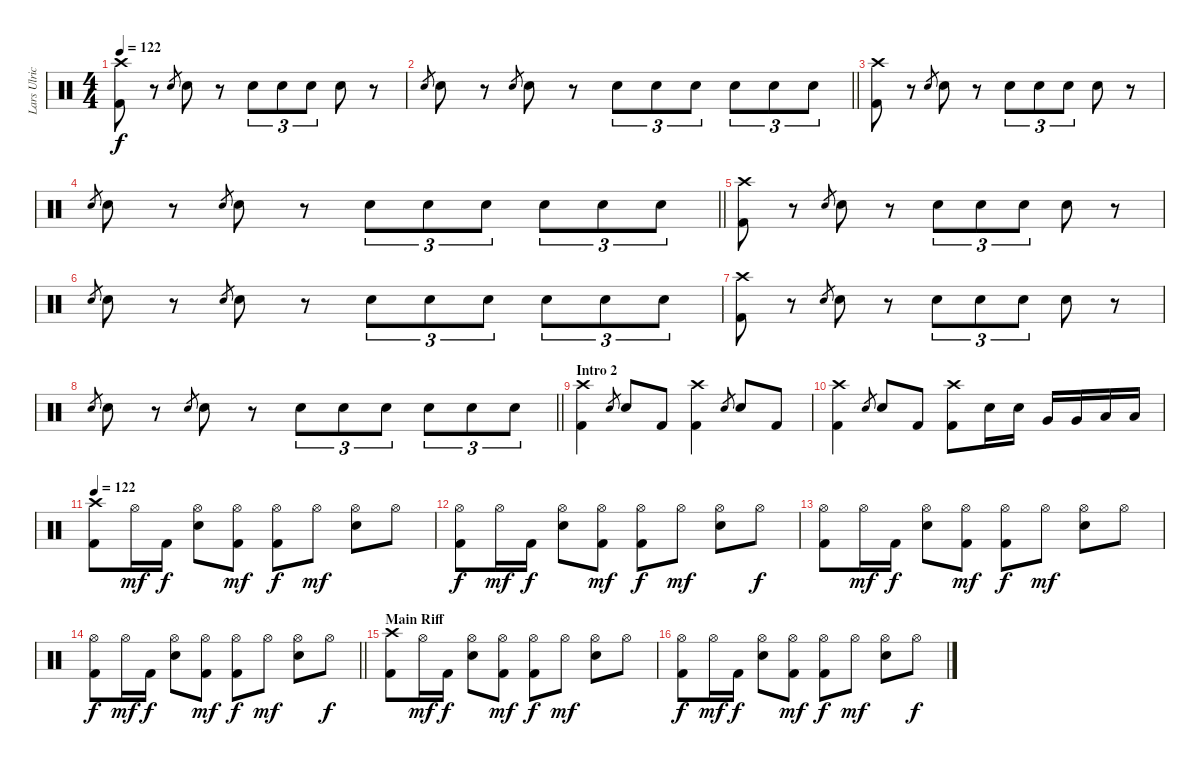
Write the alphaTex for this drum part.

\track ("Lars Ulrich" "Lars Ulric") {instrument percussion}
\staff {score}
\articulation defaults
\ts (4 4)
\tempo 122
\clef neutral
\ks c
("Crash high (hit)" "Kick (hit) 2").8{dy f} r.8 "Snare (hit) 2".8{gr} "Snare (hit) 2".8 r.8 "Snare (hit) 2".8{tu (3 2)} "Snare (hit) 2".8{tu (3 2)} "Snare (hit) 2".8{tu (3 2)} "Snare (hit) 2".8 r.8 |
\barLineRight lightlight "Snare (hit) 2".8{gr} "Snare (hit) 2".8
r.8 "Snare (hit) 2".8{gr} "Snare (hit) 2".8 r.8 "Snare (hit) 2".8{tu (3 2)} "Snare (hit) 2".8{tu (3 2)} "Snare (hit) 2".8{tu (3 2)} "Snare (hit) 2".8{tu (3 2)} "Snare (hit) 2".8{tu (3 2)} "Snare (hit) 2".8{tu (3 2)} |
("Crash high (hit)" "Kick (hit) 2").8 r.8 "Snare (hit) 2".8{gr} "Snare (hit) 2".8 r.8 "Snare (hit) 2".8{tu (3 2)} "Snare (hit) 2".8{tu (3 2)} "Snare (hit) 2".8{tu (3 2)} "Snare (hit) 2".8 r.8 |
\barLineRight lightlight "Snare (hit) 2".8{gr} "Snare (hit) 2".8
r.8 "Snare (hit) 2".8{gr} "Snare (hit) 2".8 r.8 "Snare (hit) 2".8{tu (3 2)} "Snare (hit) 2".8{tu (3 2)} "Snare (hit) 2".8{tu (3 2)} "Snare (hit) 2".8{tu (3 2)} "Snare (hit) 2".8{tu (3 2)} "Snare (hit) 2".8{tu (3 2)} |
("Crash high (hit)" "Kick (hit) 2").8 r.8 "Snare (hit) 2".8{gr} "Snare (hit) 2".8 r.8 "Snare (hit) 2".8{tu (3 2)} "Snare (hit) 2".8{tu (3 2)} "Snare (hit) 2".8{tu (3 2)} "Snare (hit) 2".8 r.8 |
"Snare (hit) 2".8{gr} "Snare (hit) 2".8 r.8 "Snare (hit) 2".8{gr} "Snare (hit) 2".8 r.8 "Snare (hit) 2".8{tu (3 2)} "Snare (hit) 2".8{tu (3 2)} "Snare (hit) 2".8{tu (3 2)} "Snare (hit) 2".8{tu (3 2)} "Snare (hit) 2".8{tu (3 2)} "Snare (hit) 2".8{tu (3 2)} |
("Crash high (hit)" "Kick (hit) 2").8 r.8 "Snare (hit) 2".8{gr} "Snare (hit) 2".8 r.8 "Snare (hit) 2".8{tu (3 2)} "Snare (hit) 2".8{tu (3 2)} "Snare (hit) 2".8{tu (3 2)} "Snare (hit) 2".8 r.8 |
\barLineRight lightlight "Snare (hit) 2".8{gr} "Snare (hit) 2".8
r.8 "Snare (hit) 2".8{gr} "Snare (hit) 2".8 r.8 "Snare (hit) 2".8{tu (3 2)} "Snare (hit) 2".8{tu (3 2)} "Snare (hit) 2".8{tu (3 2)} "Snare (hit) 2".8{tu (3 2)} "Snare (hit) 2".8{tu (3 2)} "Snare (hit) 2".8{tu (3 2)} |
\section ("" "Intro 2")
("Crash high (hit)" "Kick (hit) 2").4 "Snare (hit) 2".8{gr} "Snare (hit) 2".8 "Kick (hit) 2".8 ("Crash high (hit)" "Kick (hit) 2").4 "Snare (hit) 2".8{gr} "Snare (hit) 2".8 "Kick (hit) 2".8 |
("Crash high (hit)" "Kick (hit) 2").4 "Snare (hit) 2".8{gr} "Snare (hit) 2".8 "Kick (hit) 2".8 ("Crash high (hit)" "Kick (hit) 2").8 "Snare (hit) 2".16 "Snare (hit) 2".16 "Very Low Tom (hit)".16 "Very Low Tom (hit)".16 "Low Floor Tom (hit)".16 "Low Floor Tom (hit)".16 |
\tempo 122
("Crash high (hit)" "Kick (hit) 2").8 "Hi-Hat (open)".16{dy mf} "Kick (hit) 2".16{dy f} ("Hi-Hat (open)" "Snare (hit) 2").8 ("Hi-Hat (open)" "Kick (hit) 2").8{dy mf} ("Hi-Hat (open)" "Kick (hit) 2").8{dy f} "Hi-Hat (open)".8{dy mf} ("Hi-Hat (open)" "Snare (hit) 2").8 "Hi-Hat (open)".8 |
("Hi-Hat (open)" "Kick (hit) 2").8{dy f} "Hi-Hat (open)".16{dy mf} "Kick (hit) 2".16{dy f} ("Hi-Hat (open)" "Snare (hit) 2").8 ("Hi-Hat (open)" "Kick (hit) 2").8{dy mf} ("Hi-Hat (open)" "Kick (hit) 2").8{dy f} "Hi-Hat (open)".8{dy mf} ("Hi-Hat (open)" "Snare (hit) 2").8 "Hi-Hat (open)".8{dy f} |
("Hi-Hat (open)" "Kick (hit) 2").8 "Hi-Hat (open)".16{dy mf} "Kick (hit) 2".16{dy f} ("Hi-Hat (open)" "Snare (hit) 2").8 ("Hi-Hat (open)" "Kick (hit) 2").8{dy mf} ("Hi-Hat (open)" "Kick (hit) 2").8{dy f} "Hi-Hat (open)".8{dy mf} ("Hi-Hat (open)" "Snare (hit) 2").8 "Hi-Hat (open)".8 |
\barLineRight lightlight
("Hi-Hat (open)" "Kick (hit) 2").8{dy f} "Hi-Hat (open)".16{dy mf} "Kick (hit) 2".16{dy f} ("Hi-Hat (open)" "Snare (hit) 2").8 ("Hi-Hat (open)" "Kick (hit) 2").8{dy mf} ("Hi-Hat (open)" "Kick (hit) 2").8{dy f} "Hi-Hat (open)".8{dy mf} ("Hi-Hat (open)" "Snare (hit) 2").8 "Hi-Hat (open)".8{dy f} |
\section ("" "Main Riff")
("Crash high (hit)" "Kick (hit) 2").8 "Hi-Hat (open)".16{dy mf} "Kick (hit) 2".16{dy f} ("Hi-Hat (open)" "Snare (hit) 2").8 ("Hi-Hat (open)" "Kick (hit) 2").8{dy mf} ("Hi-Hat (open)" "Kick (hit) 2").8{dy f} "Hi-Hat (open)".8{dy mf} ("Hi-Hat (open)" "Snare (hit) 2").8 "Hi-Hat (open)".8 |
("Hi-Hat (open)" "Kick (hit) 2").8{dy f} "Hi-Hat (open)".16{dy mf} "Kick (hit) 2".16{dy f} ("Hi-Hat (open)" "Snare (hit) 2").8 ("Hi-Hat (open)" "Kick (hit) 2").8{dy mf} ("Hi-Hat (open)" "Kick (hit) 2").8{dy f} "Hi-Hat (open)".8{dy mf} ("Hi-Hat (open)" "Snare (hit) 2").8 "Hi-Hat (open)".8{dy f}
